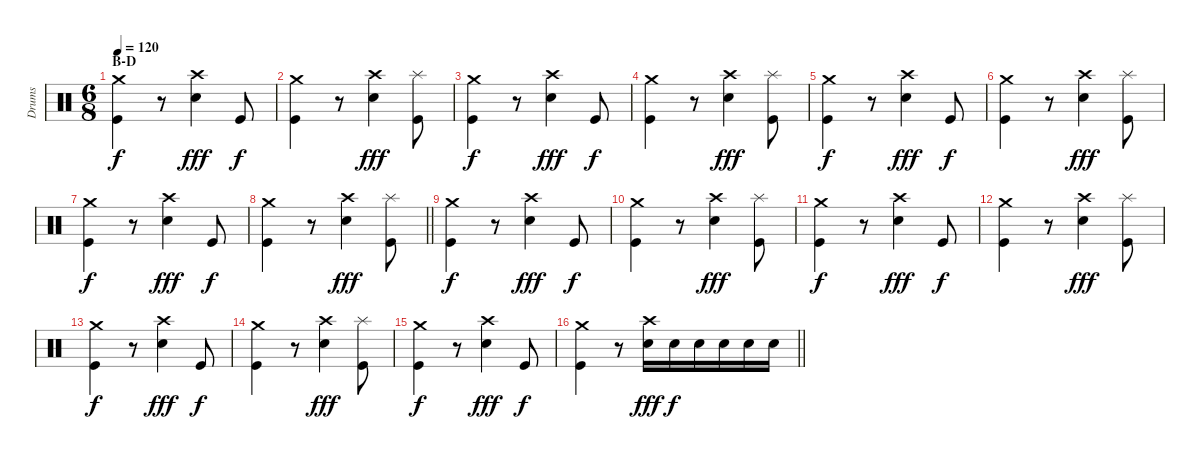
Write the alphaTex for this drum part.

\track ("Drums" "Drums") {instrument percussion}
\staff {score}
\articulation defaults
\ts (6 8)
\section ("" "B-D")
\tempo 120
\clef neutral
\ks c
("Kick (hit)" "Crash medium (hit)").4{dy f} r.8 ("Electric Snare (hit)" "Crash high (hit)").4{dy fff} "Kick (hit)".8{dy f} |
("Kick (hit)" "Crash medium (hit)").4 r.8 ("Electric Snare (hit)" "Crash high (hit)").4{dy fff} ("Kick (hit)" "Splash (hit)").8 |
("Kick (hit)" "Crash medium (hit)").4{dy f} r.8 ("Electric Snare (hit)" "Crash high (hit)").4{dy fff} "Kick (hit)".8{dy f} |
("Kick (hit)" "Crash medium (hit)").4 r.8 ("Electric Snare (hit)" "Crash high (hit)").4{dy fff} ("Kick (hit)" "Splash (hit)").8 |
("Kick (hit)" "Crash medium (hit)").4{dy f} r.8 ("Electric Snare (hit)" "Crash high (hit)").4{dy fff} "Kick (hit)".8{dy f} |
("Kick (hit)" "Crash medium (hit)").4 r.8 ("Electric Snare (hit)" "Crash high (hit)").4{dy fff} ("Kick (hit)" "Splash (hit)").8 |
("Kick (hit)" "Crash medium (hit)").4{dy f} r.8 ("Electric Snare (hit)" "Crash high (hit)").4{dy fff} "Kick (hit)".8{dy f} |
\barLineRight lightlight
("Kick (hit)" "Crash medium (hit)").4 r.8 ("Electric Snare (hit)" "Crash high (hit)").4{dy fff} ("Kick (hit)" "Splash (hit)").8 |
("Kick (hit)" "Crash medium (hit)").4{dy f} r.8 ("Electric Snare (hit)" "Crash high (hit)").4{dy fff} "Kick (hit)".8{dy f} |
("Kick (hit)" "Crash medium (hit)").4 r.8 ("Electric Snare (hit)" "Crash high (hit)").4{dy fff} ("Kick (hit)" "Splash (hit)").8 |
("Kick (hit)" "Crash medium (hit)").4{dy f} r.8 ("Electric Snare (hit)" "Crash high (hit)").4{dy fff} "Kick (hit)".8{dy f} |
("Kick (hit)" "Crash medium (hit)").4 r.8 ("Electric Snare (hit)" "Crash high (hit)").4{dy fff} ("Kick (hit)" "Splash (hit)").8 |
("Kick (hit)" "Crash medium (hit)").4{dy f} r.8 ("Electric Snare (hit)" "Crash high (hit)").4{dy fff} "Kick (hit)".8{dy f} |
("Kick (hit)" "Crash medium (hit)").4 r.8 ("Electric Snare (hit)" "Crash high (hit)").4{dy fff} ("Kick (hit)" "Splash (hit)").8 |
("Kick (hit)" "Crash medium (hit)").4{dy f} r.8 ("Electric Snare (hit)" "Crash high (hit)").4{dy fff} "Kick (hit)".8{dy f} |
\barLineRight lightlight
("Kick (hit)" "Crash medium (hit)").4 r.8 ("Electric Snare (hit)" "Crash high (hit)").16{dy fff} "Electric Snare (hit)".16{dy f} "Electric Snare (hit)".16 "Electric Snare (hit)".16 "Electric Snare (hit)".16 "Electric Snare (hit)".16
